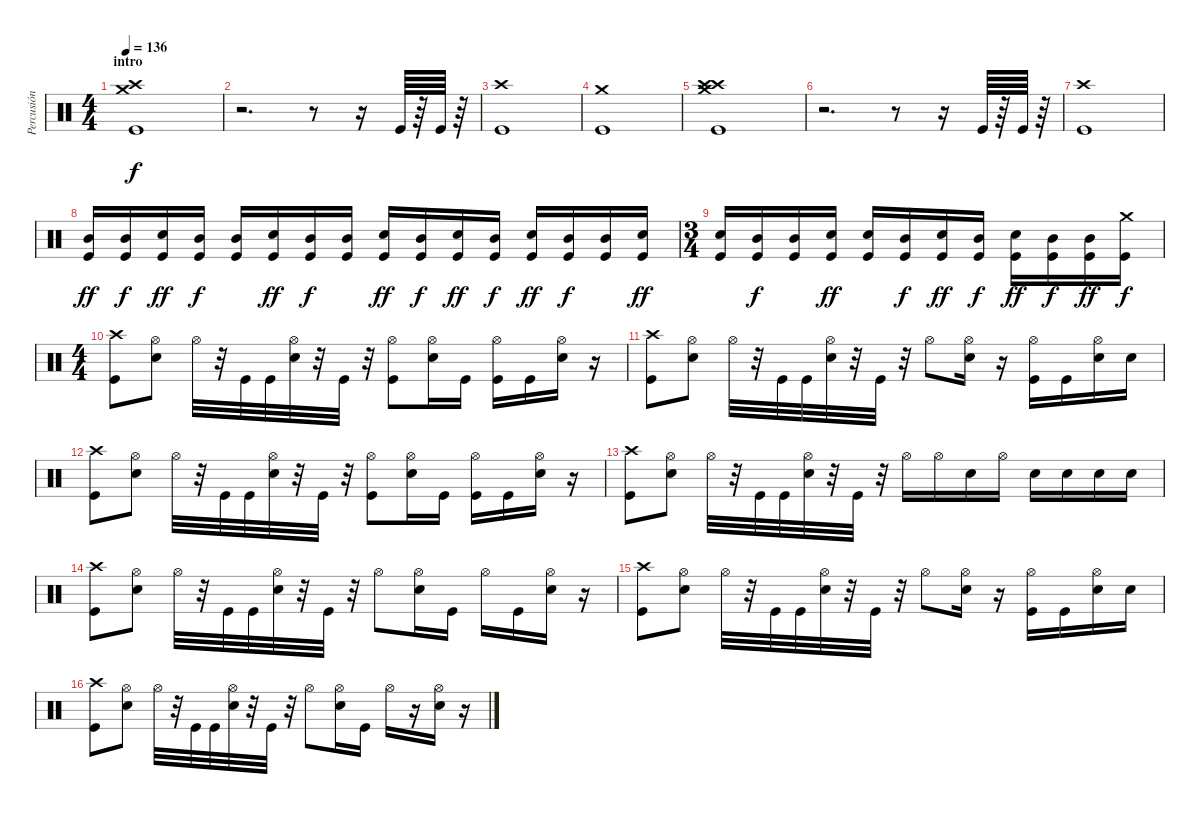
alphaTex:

\track ("Percusión" "Percusión") {instrument percussion}
\staff {score}
\articulation defaults
\ts (4 4)
\section ("" "intro")
\tempo 136
\clef neutral
\ks c
("Crash high (hit)" "Crash medium (hit)" "Kick (hit)").1{dy f} |
r.2{d} r.8 r.16 "Kick (hit)".64 r.64 "Kick (hit)".64 r.64 |
("Crash high (hit)" "Kick (hit)").1 |
("Crash medium (hit)" "Kick (hit)").1 |
("Crash high (hit)" "Crash medium (hit)" "Crash high (hit)" "Kick (hit)").1 |
r.2{d} r.8 r.16 "Kick (hit)".64 r.64 "Kick (hit)".64 r.64 |
("Crash high (hit)" "Kick (hit)").1 |
("Mid Tom (hit)" "Kick (hit)").16{dy ff} ("Mid Tom (hit)" "Kick (hit)").16{dy f} ("Electric Snare (hit)" "Kick (hit)").16{dy ff} ("Mid Tom (hit)" "Kick (hit)").16{dy f} ("Mid Tom (hit)" "Kick (hit)").16 ("Electric Snare (hit)" "Kick (hit)").16{dy ff} ("Mid Tom (hit)" "Kick (hit)").16{dy f} ("Mid Tom (hit)" "Kick (hit)").16 ("Electric Snare (hit)" "Kick (hit)").16{dy ff} ("Mid Tom (hit)" "Kick (hit)").16{dy f} ("Electric Snare (hit)" "Kick (hit)").16{dy ff} ("Mid Tom (hit)" "Kick (hit)").16{dy f} ("Electric Snare (hit)" "Kick (hit)").16{dy ff} ("Mid Tom (hit)" "Kick (hit)").16{dy f} ("Mid Tom (hit)" "Kick (hit)").16 ("Electric Snare (hit)" "Kick (hit)").16{dy ff} |
\ts (3 4)
("Electric Snare (hit)" "Kick (hit)").16 ("Mid Tom (hit)" "Kick (hit)").16{dy f} ("Mid Tom (hit)" "Kick (hit)").16 ("Electric Snare (hit)" "Kick (hit)").16{dy ff} ("Electric Snare (hit)" "Kick (hit)").16 ("Mid Tom (hit)" "Kick (hit)").16{dy f} ("Electric Snare (hit)" "Kick (hit)").16{dy ff} ("Mid Tom (hit)" "Kick (hit)").16{dy f} ("Electric Snare (hit)" "Kick (hit)").16{dy ff} ("Mid Tom (hit)" "Kick (hit)").16{dy f} ("Mid Tom (hit)" "Kick (hit)").16{dy ff} ("Crash medium (hit)" "Kick (hit)").16{dy f} |
\ts (4 4)
("Crash high (hit)" "Kick (hit)").8 ("Hi-Hat (open)" "Snare (hit) 2").8 "Hi-Hat (open)".32 r.32 "Kick (hit)".32 "Kick (hit)".32 ("Hi-Hat (open)" "Snare (hit) 2").32 r.32 "Kick (hit)".32 r.32 ("Hi-Hat (open)" "Kick (hit)").8 ("Hi-Hat (open)" "Snare (hit) 2").16 "Kick (hit)".16 ("Hi-Hat (open)" "Kick (hit)").16 "Kick (hit)".16 ("Hi-Hat (open)" "Snare (hit) 2").16 r.16 |
("Crash high (hit)" "Kick (hit)").8 ("Hi-Hat (open)" "Snare (hit) 2").8 "Hi-Hat (open)".32 r.32 "Kick (hit)".32 "Kick (hit)".32 ("Hi-Hat (open)" "Snare (hit) 2").32 r.32 "Kick (hit)".32 r.32 "Hi-Hat (open)".8 ("Hi-Hat (open)" "Snare (hit) 2").16 r.16 ("Hi-Hat (open)" "Kick (hit)").16 "Kick (hit)".16 ("Hi-Hat (open)" "Snare (hit) 2").16 "Snare (hit) 2".16 |
("Crash high (hit)" "Kick (hit)").8 ("Hi-Hat (open)" "Snare (hit) 2").8 "Hi-Hat (open)".32 r.32 "Kick (hit)".32 "Kick (hit)".32 ("Hi-Hat (open)" "Snare (hit) 2").32 r.32 "Kick (hit)".32 r.32 ("Hi-Hat (open)" "Kick (hit)").8 ("Hi-Hat (open)" "Snare (hit) 2").16 "Kick (hit)".16 ("Hi-Hat (open)" "Kick (hit)").16 "Kick (hit)".16 ("Hi-Hat (open)" "Snare (hit) 2").16 r.16 |
("Crash high (hit)" "Kick (hit)").8 ("Hi-Hat (open)" "Snare (hit) 2").8 "Hi-Hat (open)".32 r.32 "Kick (hit)".32 "Kick (hit)".32 ("Hi-Hat (open)" "Snare (hit) 2").32 r.32 "Kick (hit)".32 r.32 "Hi-Hat (open)".16 "Hi-Hat (open)".16 "Snare (hit) 2".16 "Hi-Hat (open)".16 "Snare (hit) 2".16 "Snare (hit) 2".16 "Snare (hit) 2".16 "Snare (hit) 2".16 |
("Crash high (hit)" "Kick (hit)").8 ("Hi-Hat (open)" "Snare (hit) 2").8 "Hi-Hat (open)".32 r.32 "Kick (hit)".32 "Kick (hit)".32 ("Hi-Hat (open)" "Snare (hit) 2").32 r.32 "Kick (hit)".32 r.32 "Hi-Hat (open)".8 ("Hi-Hat (open)" "Snare (hit) 2").16 "Kick (hit)".16 "Hi-Hat (open)".16 "Kick (hit)".16 ("Hi-Hat (open)" "Snare (hit) 2").16 r.16 |
("Crash high (hit)" "Kick (hit)").8 ("Hi-Hat (open)" "Snare (hit) 2").8 "Hi-Hat (open)".32 r.32 "Kick (hit)".32 "Kick (hit)".32 ("Hi-Hat (open)" "Snare (hit) 2").32 r.32 "Kick (hit)".32 r.32 "Hi-Hat (open)".8 ("Hi-Hat (open)" "Snare (hit) 2").16 r.16 ("Hi-Hat (open)" "Kick (hit)").16 "Kick (hit)".16 ("Hi-Hat (open)" "Snare (hit) 2").16 "Snare (hit) 2".16 |
("Crash high (hit)" "Kick (hit)").8 ("Hi-Hat (open)" "Snare (hit) 2").8 "Hi-Hat (open)".32 r.32 "Kick (hit)".32 "Kick (hit)".32 ("Hi-Hat (open)" "Snare (hit) 2").32 r.32 "Kick (hit)".32 r.32 "Hi-Hat (open)".8 ("Hi-Hat (open)" "Snare (hit) 2").16 "Kick (hit)".16 "Hi-Hat (open)".16 r.16 ("Hi-Hat (open)" "Snare (hit) 2").16 r.16
